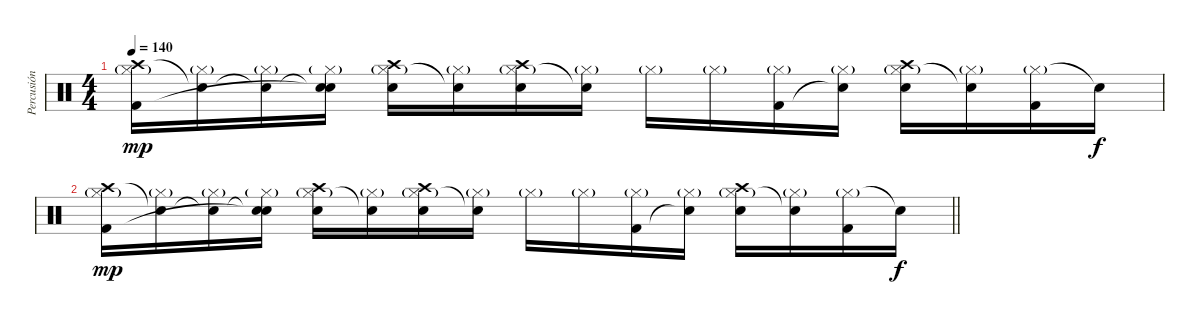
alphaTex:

\track ("Percusión" "Percusión") {instrument percussion}
\staff {score}
\articulation defaults
\ts (4 4)
\tempo 140
\clef neutral
\ks c
("Crash high (hit)" "Hi-Hat (closed)"{g} "Kick (hit) 2").16{dy mp} ("Snare (hit)"{t} "Hi-Hat (closed)"{g}).16 ("Snare (hit)"{t} "Hi-Hat (closed)"{g}).16 ("Snare (hit)"{t} "Hi-Hat (closed)"{g} "Snare (hit)"{t}).16 ("Crash high (hit)" "Hi-Hat (closed)"{g} "Electric Snare (hit)").16 ("Hi-Hat (closed)"{g} "Snare (hit)"{t}).16 ("Crash high (hit)" "Hi-Hat (closed)"{g} "Electric Snare (hit)").16 ("Hi-Hat (closed)"{g} "Snare (hit)"{t}).16 "Hi-Hat (closed)"{g}.16 "Hi-Hat (closed)"{g}.16 ("Hi-Hat (closed)"{g} "Kick (hit) 2").16 ("Hi-Hat (closed)"{g} "Snare (hit)"{t}).16 ("Crash high (hit)" "Hi-Hat (closed)"{g} "Electric Snare (hit)").16 ("Hi-Hat (closed)"{g} "Snare (hit)"{t}).16 ("Hi-Hat (closed)"{g} "Kick (hit) 2").16 "Snare (hit)"{t}.16{dy f} |
\barLineRight lightlight
("Crash high (hit)" "Hi-Hat (closed)"{g} "Kick (hit) 2").16{dy mp} ("Snare (hit)"{t} "Hi-Hat (closed)"{g}).16 ("Snare (hit)"{t} "Hi-Hat (closed)"{g}).16 ("Snare (hit)"{t} "Hi-Hat (closed)"{g} "Snare (hit)"{t}).16 ("Crash high (hit)" "Hi-Hat (closed)"{g} "Electric Snare (hit)").16 ("Hi-Hat (closed)"{g} "Snare (hit)"{t}).16 ("Crash high (hit)" "Hi-Hat (closed)"{g} "Electric Snare (hit)").16 ("Hi-Hat (closed)"{g} "Snare (hit)"{t}).16 "Hi-Hat (closed)"{g}.16 "Hi-Hat (closed)"{g}.16 ("Hi-Hat (closed)"{g} "Kick (hit) 2").16 ("Hi-Hat (closed)"{g} "Snare (hit)"{t}).16 ("Crash high (hit)" "Hi-Hat (closed)"{g} "Electric Snare (hit)").16 ("Hi-Hat (closed)"{g} "Snare (hit)"{t}).16 ("Hi-Hat (closed)"{g} "Kick (hit) 2").16 "Snare (hit)"{t}.16{dy f}
